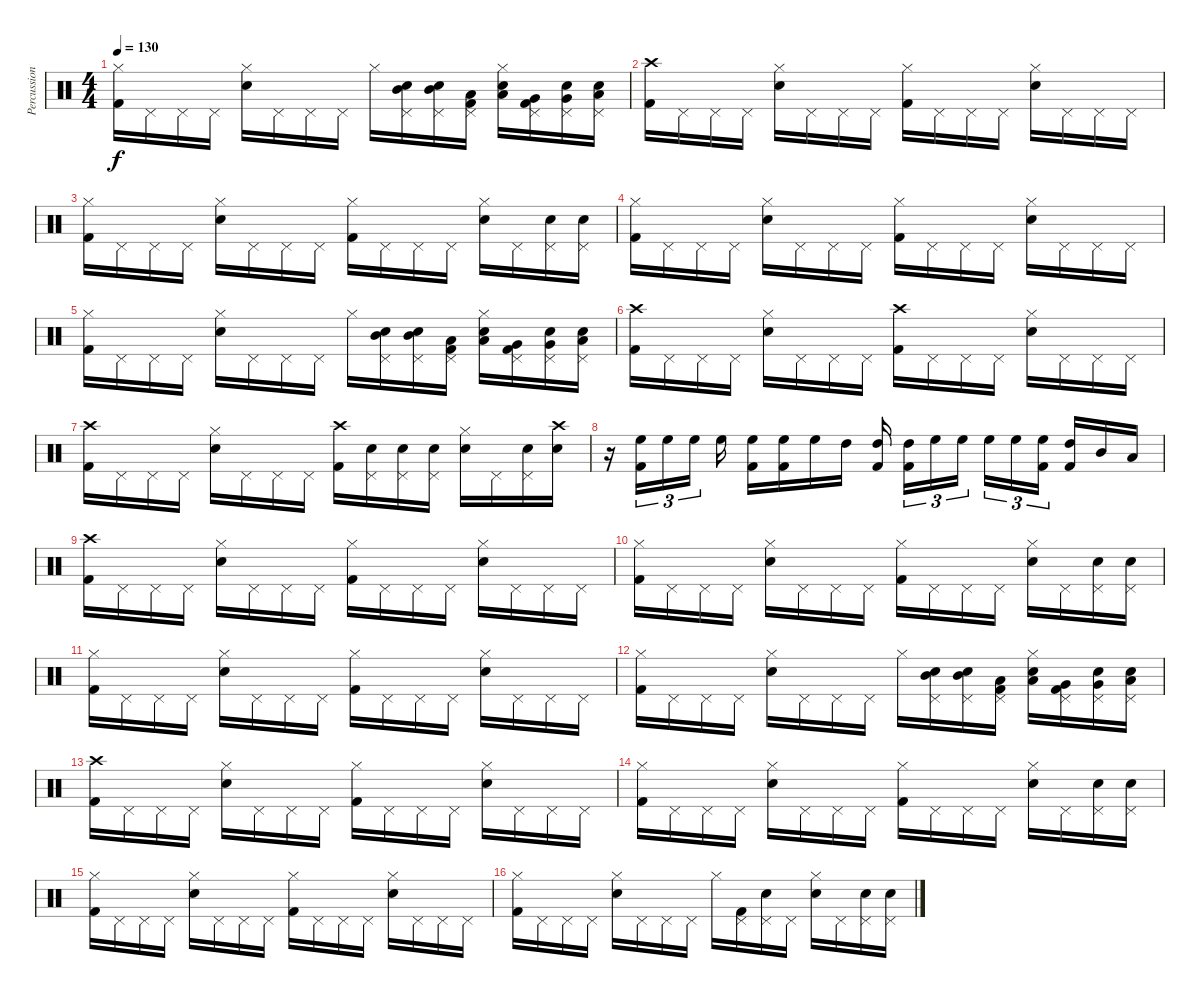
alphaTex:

\track ("Percussion" "Percussion") {instrument percussion}
\staff {score}
\articulation defaults
\ts (4 4)
\tempo 130
\clef neutral
\ks c
("Hi-Hat (closed)" "Kick (hit) 2").16{dy f} "Pedal Hi-Hat (hit)".16 "Pedal Hi-Hat (hit)".16 "Pedal Hi-Hat (hit)".16 ("Hi-Hat (closed)" "Snare (hit) 2").16 "Pedal Hi-Hat (hit)".16 "Pedal Hi-Hat (hit)".16 "Pedal Hi-Hat (hit)".16 "Hi-Hat (closed)".16 ("Pedal Hi-Hat (hit)" "Mid Tom (hit)" "Snare (hit) 2").16 ("Pedal Hi-Hat (hit)" "Mid Tom (hit)" "Snare (hit) 2").16 ("Pedal Hi-Hat (hit)" "Low Tom (hit)" "Kick (hit) 2").16 ("Hi-Hat (closed)" "Low Tom (hit)" "Snare (hit) 2").16 ("Pedal Hi-Hat (hit)" "Very Low Tom (hit)" "Kick (hit) 2").16 ("Pedal Hi-Hat (hit)" "Very Low Tom (hit)" "Snare (hit) 2").16 ("Pedal Hi-Hat (hit)" "Low Floor Tom (hit)" "Snare (hit) 2").16 |
("Crash high (hit)" "Kick (hit) 2").16 "Pedal Hi-Hat (hit)".16 "Pedal Hi-Hat (hit)".16 "Pedal Hi-Hat (hit)".16 ("Hi-Hat (closed)" "Snare (hit) 2").16 "Pedal Hi-Hat (hit)".16 "Pedal Hi-Hat (hit)".16 "Pedal Hi-Hat (hit)".16 ("Hi-Hat (closed)" "Kick (hit) 2").16 "Pedal Hi-Hat (hit)".16 "Pedal Hi-Hat (hit)".16 "Pedal Hi-Hat (hit)".16 ("Hi-Hat (closed)" "Snare (hit) 2").16 "Pedal Hi-Hat (hit)".16 "Pedal Hi-Hat (hit)".16 "Pedal Hi-Hat (hit)".16 |
("Hi-Hat (closed)" "Kick (hit) 2").16 "Pedal Hi-Hat (hit)".16 "Pedal Hi-Hat (hit)".16 "Pedal Hi-Hat (hit)".16 ("Hi-Hat (closed)" "Snare (hit) 2").16 "Pedal Hi-Hat (hit)".16 "Pedal Hi-Hat (hit)".16 "Pedal Hi-Hat (hit)".16 ("Hi-Hat (closed)" "Kick (hit) 2").16 "Pedal Hi-Hat (hit)".16 "Pedal Hi-Hat (hit)".16 "Pedal Hi-Hat (hit)".16 ("Hi-Hat (closed)" "Snare (hit) 2").16 "Pedal Hi-Hat (hit)".16 ("Pedal Hi-Hat (hit)" "Snare (hit) 2").16 ("Pedal Hi-Hat (hit)" "Snare (hit) 2").16 |
("Hi-Hat (closed)" "Kick (hit) 2").16 "Pedal Hi-Hat (hit)".16 "Pedal Hi-Hat (hit)".16 "Pedal Hi-Hat (hit)".16 ("Hi-Hat (closed)" "Snare (hit) 2").16 "Pedal Hi-Hat (hit)".16 "Pedal Hi-Hat (hit)".16 "Pedal Hi-Hat (hit)".16 ("Hi-Hat (closed)" "Kick (hit) 2").16 "Pedal Hi-Hat (hit)".16 "Pedal Hi-Hat (hit)".16 "Pedal Hi-Hat (hit)".16 ("Hi-Hat (closed)" "Snare (hit) 2").16 "Pedal Hi-Hat (hit)".16 "Pedal Hi-Hat (hit)".16 "Pedal Hi-Hat (hit)".16 |
("Hi-Hat (closed)" "Kick (hit) 2").16 "Pedal Hi-Hat (hit)".16 "Pedal Hi-Hat (hit)".16 "Pedal Hi-Hat (hit)".16 ("Hi-Hat (closed)" "Snare (hit) 2").16 "Pedal Hi-Hat (hit)".16 "Pedal Hi-Hat (hit)".16 "Pedal Hi-Hat (hit)".16 "Hi-Hat (closed)".16 ("Pedal Hi-Hat (hit)" "Mid Tom (hit)" "Snare (hit) 2").16 ("Pedal Hi-Hat (hit)" "Mid Tom (hit)" "Snare (hit) 2").16 ("Pedal Hi-Hat (hit)" "Low Tom (hit)" "Kick (hit) 2").16 ("Hi-Hat (closed)" "Low Tom (hit)" "Snare (hit) 2").16 ("Pedal Hi-Hat (hit)" "Very Low Tom (hit)" "Kick (hit) 2").16 ("Pedal Hi-Hat (hit)" "Very Low Tom (hit)" "Snare (hit) 2").16 ("Pedal Hi-Hat (hit)" "Low Floor Tom (hit)" "Snare (hit) 2").16 |
("Crash high (hit)" "Kick (hit) 2").16 "Pedal Hi-Hat (hit)".16 "Pedal Hi-Hat (hit)".16 "Pedal Hi-Hat (hit)".16 ("Hi-Hat (closed)" "Snare (hit) 2").16 "Pedal Hi-Hat (hit)".16 "Pedal Hi-Hat (hit)".16 "Pedal Hi-Hat (hit)".16 ("Crash high (hit)" "Kick (hit) 2").16 "Pedal Hi-Hat (hit)".16 "Pedal Hi-Hat (hit)".16 "Pedal Hi-Hat (hit)".16 ("Hi-Hat (closed)" "Snare (hit) 2").16 "Pedal Hi-Hat (hit)".16 "Pedal Hi-Hat (hit)".16 "Pedal Hi-Hat (hit)".16 |
("Crash high (hit)" "Kick (hit) 2").16 "Pedal Hi-Hat (hit)".16 "Pedal Hi-Hat (hit)".16 "Pedal Hi-Hat (hit)".16 ("Hi-Hat (closed)" "Snare (hit) 2").16 "Pedal Hi-Hat (hit)".16 "Pedal Hi-Hat (hit)".16 "Pedal Hi-Hat (hit)".16 ("Crash high (hit)" "Kick (hit) 2").16 ("Pedal Hi-Hat (hit)" "Snare (hit) 2").16 ("Pedal Hi-Hat (hit)" "Snare (hit) 2").16 ("Pedal Hi-Hat (hit)" "Snare (hit) 2").16 ("Hi-Hat (closed)" "Snare (hit) 2").16 "Pedal Hi-Hat (hit)".16 ("Pedal Hi-Hat (hit)" "Snare (hit) 2").16 ("Crash high (hit)" "Snare (hit) 2").16 |
r.16 ("High Floor Tom (hit)" "Kick (hit) 2").16{tu (3 2)} "High Floor Tom (hit)".16{tu (3 2)} "High Floor Tom (hit)".16{tu (3 2) beam splitsecondary} "High Floor Tom (hit)".16 ("High Floor Tom (hit)" "Kick (hit) 2").16 ("High Floor Tom (hit)" "Kick (hit) 2").16 "High Floor Tom (hit)".16 "High Tom (hit)".16 ("High Tom (hit)" "Kick (hit) 2").16{beam splitsecondary} ("High Tom (hit)" "Kick (hit) 2").16{tu (3 2)} "High Floor Tom (hit)".16{tu (3 2)} "High Floor Tom (hit)".16{tu (3 2) beam splitsecondary} "High Floor Tom (hit)".16{tu (3 2)} "High Floor Tom (hit)".16{tu (3 2)} ("High Floor Tom (hit)" "Kick (hit) 2").16{tu (3 2) beam splitsecondary} ("High Tom (hit)" "Kick (hit) 2").16 "Mid Tom (hit)".16 "Low Tom (hit)".16 |
("Crash high (hit)" "Kick (hit) 2").16 "Pedal Hi-Hat (hit)".16 "Pedal Hi-Hat (hit)".16 "Pedal Hi-Hat (hit)".16 ("Hi-Hat (closed)" "Snare (hit) 2").16 "Pedal Hi-Hat (hit)".16 "Pedal Hi-Hat (hit)".16 "Pedal Hi-Hat (hit)".16 ("Hi-Hat (closed)" "Kick (hit) 2").16 "Pedal Hi-Hat (hit)".16 "Pedal Hi-Hat (hit)".16 "Pedal Hi-Hat (hit)".16 ("Hi-Hat (closed)" "Snare (hit) 2").16 "Pedal Hi-Hat (hit)".16 "Pedal Hi-Hat (hit)".16 "Pedal Hi-Hat (hit)".16 |
("Hi-Hat (closed)" "Kick (hit) 2").16 "Pedal Hi-Hat (hit)".16 "Pedal Hi-Hat (hit)".16 "Pedal Hi-Hat (hit)".16 ("Hi-Hat (closed)" "Snare (hit) 2").16 "Pedal Hi-Hat (hit)".16 "Pedal Hi-Hat (hit)".16 "Pedal Hi-Hat (hit)".16 ("Hi-Hat (closed)" "Kick (hit) 2").16 "Pedal Hi-Hat (hit)".16 "Pedal Hi-Hat (hit)".16 "Pedal Hi-Hat (hit)".16 ("Hi-Hat (closed)" "Snare (hit) 2").16 "Pedal Hi-Hat (hit)".16 ("Pedal Hi-Hat (hit)" "Snare (hit) 2").16 ("Pedal Hi-Hat (hit)" "Snare (hit) 2").16 |
("Hi-Hat (closed)" "Kick (hit) 2").16 "Pedal Hi-Hat (hit)".16 "Pedal Hi-Hat (hit)".16 "Pedal Hi-Hat (hit)".16 ("Hi-Hat (closed)" "Snare (hit) 2").16 "Pedal Hi-Hat (hit)".16 "Pedal Hi-Hat (hit)".16 "Pedal Hi-Hat (hit)".16 ("Hi-Hat (closed)" "Kick (hit) 2").16 "Pedal Hi-Hat (hit)".16 "Pedal Hi-Hat (hit)".16 "Pedal Hi-Hat (hit)".16 ("Hi-Hat (closed)" "Snare (hit) 2").16 "Pedal Hi-Hat (hit)".16 "Pedal Hi-Hat (hit)".16 "Pedal Hi-Hat (hit)".16 |
("Hi-Hat (closed)" "Kick (hit) 2").16 "Pedal Hi-Hat (hit)".16 "Pedal Hi-Hat (hit)".16 "Pedal Hi-Hat (hit)".16 ("Hi-Hat (closed)" "Snare (hit) 2").16 "Pedal Hi-Hat (hit)".16 "Pedal Hi-Hat (hit)".16 "Pedal Hi-Hat (hit)".16 "Hi-Hat (closed)".16 ("Pedal Hi-Hat (hit)" "Mid Tom (hit)" "Snare (hit) 2").16 ("Pedal Hi-Hat (hit)" "Mid Tom (hit)" "Snare (hit) 2").16 ("Pedal Hi-Hat (hit)" "Low Tom (hit)" "Kick (hit) 2").16 ("Hi-Hat (closed)" "Low Tom (hit)" "Snare (hit) 2").16 ("Pedal Hi-Hat (hit)" "Very Low Tom (hit)" "Kick (hit) 2").16 ("Pedal Hi-Hat (hit)" "Very Low Tom (hit)" "Snare (hit) 2").16 ("Pedal Hi-Hat (hit)" "Low Floor Tom (hit)" "Snare (hit) 2").16 |
("Crash high (hit)" "Kick (hit) 2").16 "Pedal Hi-Hat (hit)".16 "Pedal Hi-Hat (hit)".16 "Pedal Hi-Hat (hit)".16 ("Hi-Hat (closed)" "Snare (hit) 2").16 "Pedal Hi-Hat (hit)".16 "Pedal Hi-Hat (hit)".16 "Pedal Hi-Hat (hit)".16 ("Hi-Hat (closed)" "Kick (hit) 2").16 "Pedal Hi-Hat (hit)".16 "Pedal Hi-Hat (hit)".16 "Pedal Hi-Hat (hit)".16 ("Hi-Hat (closed)" "Snare (hit) 2").16 "Pedal Hi-Hat (hit)".16 "Pedal Hi-Hat (hit)".16 "Pedal Hi-Hat (hit)".16 |
("Hi-Hat (closed)" "Kick (hit) 2").16 "Pedal Hi-Hat (hit)".16 "Pedal Hi-Hat (hit)".16 "Pedal Hi-Hat (hit)".16 ("Hi-Hat (closed)" "Snare (hit) 2").16 "Pedal Hi-Hat (hit)".16 "Pedal Hi-Hat (hit)".16 "Pedal Hi-Hat (hit)".16 ("Hi-Hat (closed)" "Kick (hit) 2").16 "Pedal Hi-Hat (hit)".16 "Pedal Hi-Hat (hit)".16 "Pedal Hi-Hat (hit)".16 ("Hi-Hat (closed)" "Snare (hit) 2").16 "Pedal Hi-Hat (hit)".16 ("Pedal Hi-Hat (hit)" "Snare (hit) 2").16 ("Pedal Hi-Hat (hit)" "Snare (hit) 2").16 |
("Hi-Hat (closed)" "Kick (hit) 2").16 "Pedal Hi-Hat (hit)".16 "Pedal Hi-Hat (hit)".16 "Pedal Hi-Hat (hit)".16 ("Hi-Hat (closed)" "Snare (hit) 2").16 "Pedal Hi-Hat (hit)".16 "Pedal Hi-Hat (hit)".16 "Pedal Hi-Hat (hit)".16 ("Hi-Hat (closed)" "Kick (hit) 2").16 "Pedal Hi-Hat (hit)".16 "Pedal Hi-Hat (hit)".16 "Pedal Hi-Hat (hit)".16 ("Hi-Hat (closed)" "Snare (hit) 2").16 "Pedal Hi-Hat (hit)".16 "Pedal Hi-Hat (hit)".16 "Pedal Hi-Hat (hit)".16 |
("Hi-Hat (closed)" "Kick (hit) 2").16 "Pedal Hi-Hat (hit)".16 "Pedal Hi-Hat (hit)".16 "Pedal Hi-Hat (hit)".16 ("Hi-Hat (closed)" "Snare (hit) 2").16 "Pedal Hi-Hat (hit)".16 "Pedal Hi-Hat (hit)".16 "Pedal Hi-Hat (hit)".16 "Hi-Hat (closed)".16 ("Pedal Hi-Hat (hit)" "Kick (hit) 2").16 ("Pedal Hi-Hat (hit)" "Snare (hit) 2").16 "Pedal Hi-Hat (hit)".16 ("Hi-Hat (closed)" "Snare (hit) 2").16 "Pedal Hi-Hat (hit)".16 ("Pedal Hi-Hat (hit)" "Snare (hit) 2").16 ("Pedal Hi-Hat (hit)" "Snare (hit) 2").16
